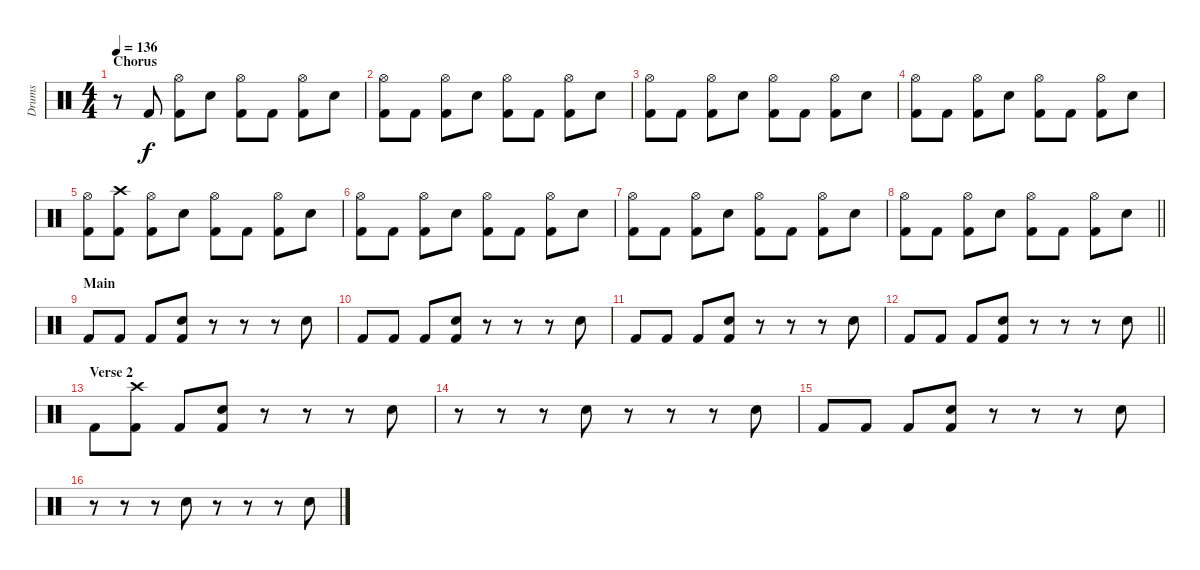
\track ("Drums" "Drums") {instrument percussion}
\staff {score}
\articulation defaults
\ts (4 4)
\section ("" "Chorus")
\tempo 136
\clef neutral
\ks c
r.8{dy f} "Kick (hit) 2".8 ("Kick (hit) 2" "Hi-Hat (open)").8 "Snare (hit) 2".8 ("Kick (hit) 2" "Hi-Hat (open)").8 "Kick (hit) 2".8 ("Kick (hit) 2" "Hi-Hat (open)").8 "Snare (hit) 2".8 |
("Kick (hit) 2" "Hi-Hat (open)").8 "Kick (hit) 2".8 ("Kick (hit) 2" "Hi-Hat (open)").8 "Snare (hit) 2".8 ("Kick (hit) 2" "Hi-Hat (open)").8 "Kick (hit) 2".8 ("Kick (hit) 2" "Hi-Hat (open)").8 "Snare (hit) 2".8 |
("Kick (hit) 2" "Hi-Hat (open)").8 "Kick (hit) 2".8 ("Kick (hit) 2" "Hi-Hat (open)").8 "Snare (hit) 2".8 ("Kick (hit) 2" "Hi-Hat (open)").8 "Kick (hit) 2".8 ("Kick (hit) 2" "Hi-Hat (open)").8 "Snare (hit) 2".8 |
("Kick (hit) 2" "Hi-Hat (open)").8 "Kick (hit) 2".8 ("Kick (hit) 2" "Hi-Hat (open)").8 "Snare (hit) 2".8 ("Kick (hit) 2" "Hi-Hat (open)").8 "Kick (hit) 2".8 ("Kick (hit) 2" "Hi-Hat (open)").8 "Snare (hit) 2".8 |
("Kick (hit) 2" "Hi-Hat (open)").8 ("Kick (hit) 2" "Crash high (hit)").8 ("Kick (hit) 2" "Hi-Hat (open)").8 "Snare (hit) 2".8 ("Kick (hit) 2" "Hi-Hat (open)").8 "Kick (hit) 2".8 ("Kick (hit) 2" "Hi-Hat (open)").8 "Snare (hit) 2".8 |
("Kick (hit) 2" "Hi-Hat (open)").8 "Kick (hit) 2".8 ("Kick (hit) 2" "Hi-Hat (open)").8 "Snare (hit) 2".8 ("Kick (hit) 2" "Hi-Hat (open)").8 "Kick (hit) 2".8 ("Kick (hit) 2" "Hi-Hat (open)").8 "Snare (hit) 2".8 |
("Kick (hit) 2" "Hi-Hat (open)").8 "Kick (hit) 2".8 ("Kick (hit) 2" "Hi-Hat (open)").8 "Snare (hit) 2".8 ("Kick (hit) 2" "Hi-Hat (open)").8 "Kick (hit) 2".8 ("Kick (hit) 2" "Hi-Hat (open)").8 "Snare (hit) 2".8 |
\barLineRight lightlight
("Kick (hit) 2" "Hi-Hat (open)").8 "Kick (hit) 2".8 ("Kick (hit) 2" "Hi-Hat (open)").8 "Snare (hit) 2".8 ("Kick (hit) 2" "Hi-Hat (open)").8 "Kick (hit) 2".8 ("Kick (hit) 2" "Hi-Hat (open)").8 "Snare (hit) 2".8 |
\section ("" "Main")
"Kick (hit) 2".8 "Kick (hit) 2".8 "Kick (hit) 2".8 ("Kick (hit) 2" "Snare (hit) 2").8 r.8 r.8 r.8 "Snare (hit) 2".8 |
"Kick (hit) 2".8 "Kick (hit) 2".8 "Kick (hit) 2".8 ("Kick (hit) 2" "Snare (hit) 2").8 r.8 r.8 r.8 "Snare (hit) 2".8 |
"Kick (hit) 2".8 "Kick (hit) 2".8 "Kick (hit) 2".8 ("Kick (hit) 2" "Snare (hit) 2").8 r.8 r.8 r.8 "Snare (hit) 2".8 |
\barLineRight lightlight "Kick (hit) 2".8 "Kick (hit) 2".8 "Kick (hit) 2".8
("Kick (hit) 2" "Snare (hit) 2").8 r.8 r.8 r.8 "Snare (hit) 2".8 |
\section ("" "Verse 2")
"Kick (hit) 2".8 ("Kick (hit) 2" "Crash high (hit)").8 "Kick (hit) 2".8 ("Kick (hit) 2" "Snare (hit) 2").8 r.8 r.8 r.8 "Snare (hit) 2".8 |
r.8 r.8 r.8 "Snare (hit) 2".8 r.8 r.8 r.8 "Snare (hit) 2".8 |
"Kick (hit) 2".8 "Kick (hit) 2".8 "Kick (hit) 2".8 ("Kick (hit) 2" "Snare (hit) 2").8 r.8 r.8 r.8 "Snare (hit) 2".8 |
r.8 r.8 r.8 "Snare (hit) 2".8 r.8 r.8 r.8 "Snare (hit) 2".8
